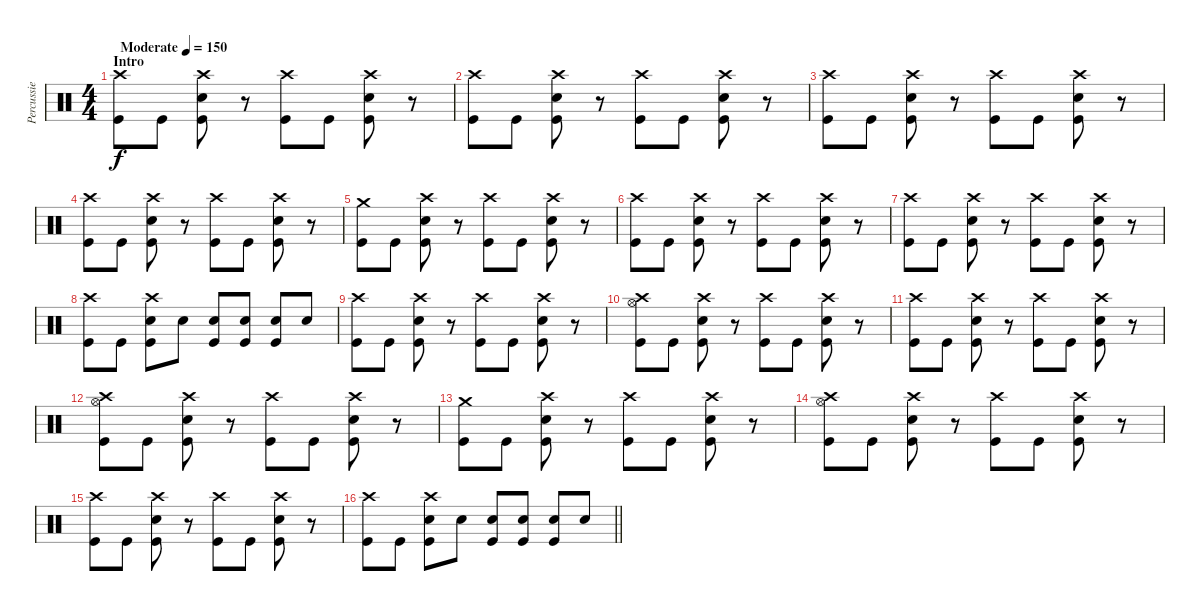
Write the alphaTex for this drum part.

\track ("Percussie" "Percussie") {instrument percussion}
\staff {score}
\articulation defaults
\ts (4 4)
\section ("" "Intro")
\tempo (150 "Moderate")
\clef neutral
\ks c
("Crash high (hit)" "Kick (hit)").8{dy f} "Kick (hit)".8 ("Crash high (hit)" "Snare (hit) 2" "Kick (hit)").8 r.8 ("Crash high (hit)" "Kick (hit)").8 "Kick (hit)".8 ("Crash high (hit)" "Snare (hit) 2" "Kick (hit)").8 r.8 |
("Crash high (hit)" "Kick (hit)").8 "Kick (hit)".8 ("Crash high (hit)" "Snare (hit) 2" "Kick (hit)").8 r.8 ("Crash high (hit)" "Kick (hit)").8 "Kick (hit)".8 ("Crash high (hit)" "Snare (hit) 2" "Kick (hit)").8 r.8 |
("Crash high (hit)" "Kick (hit)").8 "Kick (hit)".8 ("Crash high (hit)" "Snare (hit) 2" "Kick (hit)").8 r.8 ("Crash high (hit)" "Kick (hit)").8 "Kick (hit)".8 ("Crash high (hit)" "Snare (hit) 2" "Kick (hit)").8 r.8 |
("Crash high (hit)" "Kick (hit)").8 "Kick (hit)".8 ("Crash high (hit)" "Snare (hit) 2" "Kick (hit)").8 r.8 ("Crash high (hit)" "Kick (hit)").8 "Kick (hit)".8 ("Crash high (hit)" "Snare (hit) 2" "Kick (hit)").8 r.8 |
("Crash medium (hit)" "Kick (hit)").8 "Kick (hit)".8 ("Crash high (hit)" "Snare (hit) 2" "Kick (hit)").8 r.8 ("Crash high (hit)" "Kick (hit)").8 "Kick (hit)".8 ("Crash high (hit)" "Snare (hit) 2" "Kick (hit)").8 r.8 |
("Crash high (hit)" "Kick (hit)").8 "Kick (hit)".8 ("Crash high (hit)" "Snare (hit) 2" "Kick (hit)").8 r.8 ("Crash high (hit)" "Kick (hit)").8 "Kick (hit)".8 ("Crash high (hit)" "Snare (hit) 2" "Kick (hit)").8 r.8 |
("Crash high (hit)" "Kick (hit)").8 "Kick (hit)".8 ("Crash high (hit)" "Snare (hit) 2" "Kick (hit)").8 r.8 ("Crash high (hit)" "Kick (hit)").8 "Kick (hit)".8 ("Crash high (hit)" "Snare (hit) 2" "Kick (hit)").8 r.8 |
("Crash high (hit)" "Kick (hit)").8 "Kick (hit)".8 ("Crash high (hit)" "Snare (hit) 2" "Kick (hit)").8 "Snare (hit) 2".8 ("Snare (hit) 2" "Kick (hit)").8 ("Snare (hit) 2" "Kick (hit)").8 ("Snare (hit) 2" "Kick (hit)").8 "Snare (hit) 2".8 |
("Crash high (hit)" "Kick (hit)").8 "Kick (hit)".8 ("Crash high (hit)" "Snare (hit) 2" "Kick (hit)").8 r.8 ("Crash high (hit)" "Kick (hit)").8 "Kick (hit)".8 ("Crash high (hit)" "Snare (hit) 2" "Kick (hit)").8 r.8 |
("Crash high (hit)" "Hi-Hat (open)" "Kick (hit)").8 "Kick (hit)".8 ("Crash high (hit)" "Snare (hit) 2" "Kick (hit)").8 r.8 ("Crash high (hit)" "Kick (hit)").8 "Kick (hit)".8 ("Crash high (hit)" "Snare (hit) 2" "Kick (hit)").8 r.8 |
("Crash high (hit)" "Kick (hit)").8 "Kick (hit)".8 ("Crash high (hit)" "Snare (hit) 2" "Kick (hit)").8 r.8 ("Crash high (hit)" "Kick (hit)").8 "Kick (hit)".8 ("Crash high (hit)" "Snare (hit) 2" "Kick (hit)").8 r.8 |
("Crash high (hit)" "Hi-Hat (open)" "Kick (hit)").8 "Kick (hit)".8 ("Crash high (hit)" "Snare (hit) 2" "Kick (hit)").8 r.8 ("Crash high (hit)" "Kick (hit)").8 "Kick (hit)".8 ("Crash high (hit)" "Snare (hit) 2" "Kick (hit)").8 r.8 |
("Crash medium (hit)" "Kick (hit)").8 "Kick (hit)".8 ("Crash high (hit)" "Snare (hit) 2" "Kick (hit)").8 r.8 ("Crash high (hit)" "Kick (hit)").8 "Kick (hit)".8 ("Crash high (hit)" "Snare (hit) 2" "Kick (hit)").8 r.8 |
("Crash high (hit)" "Hi-Hat (open)" "Kick (hit)").8 "Kick (hit)".8 ("Crash high (hit)" "Snare (hit) 2" "Kick (hit)").8 r.8 ("Crash high (hit)" "Kick (hit)").8 "Kick (hit)".8 ("Crash high (hit)" "Snare (hit) 2" "Kick (hit)").8 r.8 |
("Crash high (hit)" "Kick (hit)").8 "Kick (hit)".8 ("Crash high (hit)" "Snare (hit) 2" "Kick (hit)").8 r.8 ("Crash high (hit)" "Kick (hit)").8 "Kick (hit)".8 ("Crash high (hit)" "Snare (hit) 2" "Kick (hit)").8 r.8 |
\barLineRight lightlight
("Crash high (hit)" "Kick (hit)").8 "Kick (hit)".8 ("Crash high (hit)" "Snare (hit) 2" "Kick (hit)").8 "Snare (hit) 2".8 ("Snare (hit) 2" "Kick (hit)").8 ("Snare (hit) 2" "Kick (hit)").8 ("Snare (hit) 2" "Kick (hit)").8 "Snare (hit) 2".8
